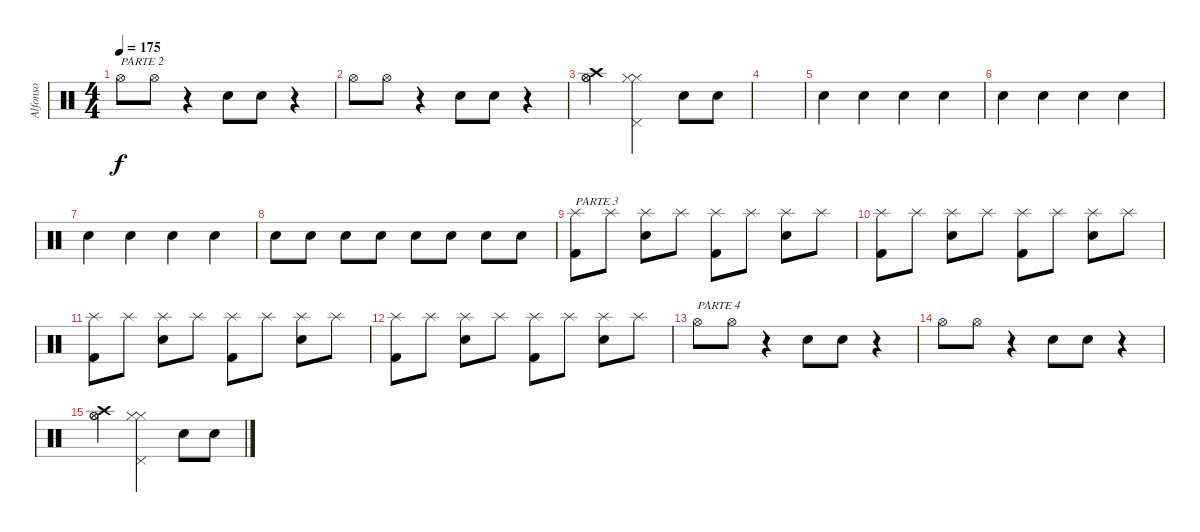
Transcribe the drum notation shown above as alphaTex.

\track ("Alfonso" "Alfonso") {instrument percussion}
\staff {score}
\articulation defaults
\ts (4 4)
\tempo 175
\clef neutral
\ks c "Hi-Hat (open)".8{txt "PARTE 2" dy f} "Hi-Hat (open)".8
r.4 "Electric Snare (hit)".8 "Electric Snare (hit)".8 r.4 |
"Hi-Hat (open)".8 "Hi-Hat (open)".8 r.4 "Electric Snare (hit)".8 "Electric Snare (hit)".8 r.4 |
("Hi-Hat (open)" "Crash high (hit)" "Hi-Hat (open)").4 ("Hi-Hat (closed)" "Pedal Hi-Hat (hit)" "Hi-Hat (closed)").2 "Electric Snare (hit)".8 "Electric Snare (hit)".8 |
|
"Electric Snare (hit)".4 "Electric Snare (hit)".4 "Electric Snare (hit)".4 "Electric Snare (hit)".4 |
"Electric Snare (hit)".4 "Electric Snare (hit)".4 "Electric Snare (hit)".4 "Electric Snare (hit)".4 |
"Electric Snare (hit)".4 "Electric Snare (hit)".4 "Electric Snare (hit)".4 "Electric Snare (hit)".4 |
"Electric Snare (hit)".8 "Electric Snare (hit)".8 "Electric Snare (hit)".8 "Electric Snare (hit)".8 "Electric Snare (hit)".8 "Electric Snare (hit)".8 "Electric Snare (hit)".8 "Electric Snare (hit)".8 |
("Splash (hit)" "Kick (hit) 2").8{txt "PARTE 3"} "Splash (hit)".8 ("Splash (hit)" "Electric Snare (hit)").8 "Splash (hit)".8 ("Splash (hit)" "Kick (hit) 2").8 "Splash (hit)".8 ("Splash (hit)" "Electric Snare (hit)").8 "Splash (hit)".8 |
("Splash (hit)" "Kick (hit) 2").8 "Splash (hit)".8 ("Splash (hit)" "Electric Snare (hit)").8 "Splash (hit)".8 ("Splash (hit)" "Kick (hit) 2").8 "Splash (hit)".8 ("Splash (hit)" "Electric Snare (hit)").8 "Splash (hit)".8 |
("Splash (hit)" "Kick (hit) 2").8 "Splash (hit)".8 ("Splash (hit)" "Electric Snare (hit)").8 "Splash (hit)".8 ("Splash (hit)" "Kick (hit) 2").8 "Splash (hit)".8 ("Splash (hit)" "Electric Snare (hit)").8 "Splash (hit)".8 |
("Splash (hit)" "Kick (hit) 2").8 "Splash (hit)".8 ("Splash (hit)" "Electric Snare (hit)").8 "Splash (hit)".8 ("Splash (hit)" "Kick (hit) 2").8 "Splash (hit)".8 ("Splash (hit)" "Electric Snare (hit)").8 "Splash (hit)".8 |
"Hi-Hat (open)".8{txt "PARTE 4"} "Hi-Hat (open)".8 r.4 "Electric Snare (hit)".8 "Electric Snare (hit)".8 r.4 |
"Hi-Hat (open)".8 "Hi-Hat (open)".8 r.4 "Electric Snare (hit)".8 "Electric Snare (hit)".8 r.4 |
("Hi-Hat (open)" "Crash high (hit)" "Hi-Hat (open)").4 ("Hi-Hat (closed)" "Pedal Hi-Hat (hit)" "Hi-Hat (closed)").2 "Electric Snare (hit)".8 "Electric Snare (hit)".8
